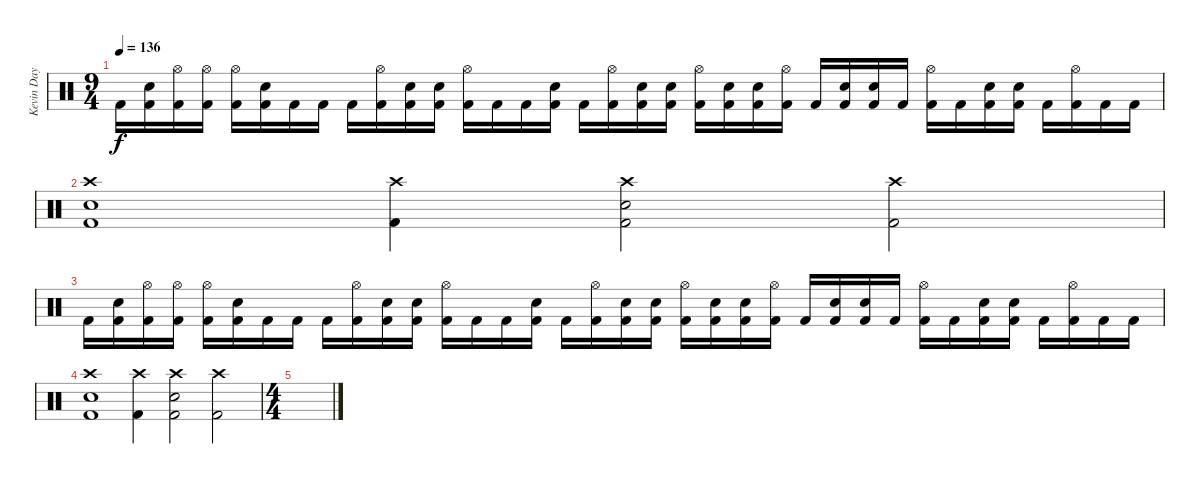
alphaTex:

\track ("Kevin Day" "Kevin Day") {instrument percussion}
\staff {score}
\articulation defaults
\ts (9 4)
\tempo 136
\clef neutral
\ks c "Kick (hit) 2".16{dy f}
("Electric Snare (hit)" "Kick (hit) 2").16 ("Hi-Hat (open)" "Kick (hit) 2").16 ("Hi-Hat (open)" "Kick (hit) 2").16 ("Hi-Hat (open)" "Kick (hit) 2").16 ("Electric Snare (hit)" "Kick (hit) 2").16 "Kick (hit) 2".16 "Kick (hit) 2".16 "Kick (hit) 2".16 ("Hi-Hat (open)" "Kick (hit) 2").16 ("Electric Snare (hit)" "Kick (hit) 2").16 ("Electric Snare (hit)" "Kick (hit) 2").16 ("Hi-Hat (open)" "Kick (hit) 2").16 "Kick (hit) 2".16 "Kick (hit) 2".16 ("Electric Snare (hit)" "Kick (hit) 2").16 "Kick (hit) 2".16 ("Hi-Hat (open)" "Kick (hit) 2").16 ("Electric Snare (hit)" "Kick (hit) 2").16 ("Electric Snare (hit)" "Kick (hit) 2").16 ("Hi-Hat (open)" "Kick (hit) 2").16 ("Electric Snare (hit)" "Kick (hit) 2").16 ("Electric Snare (hit)" "Kick (hit) 2").16 ("Hi-Hat (open)" "Kick (hit) 2").16 "Kick (hit) 2".16 ("Electric Snare (hit)" "Kick (hit) 2").16 ("Electric Snare (hit)" "Kick (hit) 2").16 "Kick (hit) 2".16 ("Hi-Hat (open)" "Kick (hit) 2").16 "Kick (hit) 2".16 ("Electric Snare (hit)" "Kick (hit) 2").16 ("Electric Snare (hit)" "Kick (hit) 2").16 "Kick (hit) 2".16 ("Hi-Hat (open)" "Kick (hit) 2").16 "Kick (hit) 2".16 "Kick (hit) 2".16 |
("Crash high (hit)" "Electric Snare (hit)" "Kick (hit) 2").1 ("Crash high (hit)" "Kick (hit) 2").4 ("Crash high (hit)" "Electric Snare (hit)" "Kick (hit) 2").2 ("Crash high (hit)" "Kick (hit) 2").2 |
"Kick (hit) 2".16 ("Electric Snare (hit)" "Kick (hit) 2").16 ("Hi-Hat (open)" "Kick (hit) 2").16 ("Hi-Hat (open)" "Kick (hit) 2").16 ("Hi-Hat (open)" "Kick (hit) 2").16 ("Electric Snare (hit)" "Kick (hit) 2").16 "Kick (hit) 2".16 "Kick (hit) 2".16 "Kick (hit) 2".16 ("Hi-Hat (open)" "Kick (hit) 2").16 ("Electric Snare (hit)" "Kick (hit) 2").16 ("Electric Snare (hit)" "Kick (hit) 2").16 ("Hi-Hat (open)" "Kick (hit) 2").16 "Kick (hit) 2".16 "Kick (hit) 2".16 ("Electric Snare (hit)" "Kick (hit) 2").16 "Kick (hit) 2".16 ("Hi-Hat (open)" "Kick (hit) 2").16 ("Electric Snare (hit)" "Kick (hit) 2").16 ("Electric Snare (hit)" "Kick (hit) 2").16 ("Hi-Hat (open)" "Kick (hit) 2").16 ("Electric Snare (hit)" "Kick (hit) 2").16 ("Electric Snare (hit)" "Kick (hit) 2").16 ("Hi-Hat (open)" "Kick (hit) 2").16 "Kick (hit) 2".16 ("Electric Snare (hit)" "Kick (hit) 2").16 ("Electric Snare (hit)" "Kick (hit) 2").16 "Kick (hit) 2".16 ("Hi-Hat (open)" "Kick (hit) 2").16 "Kick (hit) 2".16 ("Electric Snare (hit)" "Kick (hit) 2").16 ("Electric Snare (hit)" "Kick (hit) 2").16 "Kick (hit) 2".16 ("Hi-Hat (open)" "Kick (hit) 2").16 "Kick (hit) 2".16 "Kick (hit) 2".16 |
("Crash high (hit)" "Electric Snare (hit)" "Kick (hit) 2").1 ("Crash high (hit)" "Kick (hit) 2").4 ("Crash high (hit)" "Electric Snare (hit)" "Kick (hit) 2").2 ("Crash high (hit)" "Kick (hit) 2").2 |
\ts (4 4)
